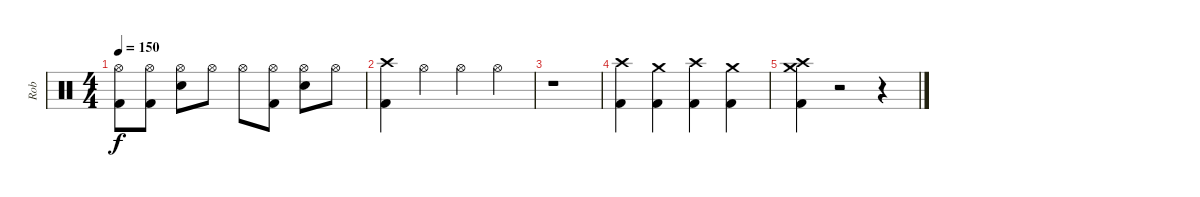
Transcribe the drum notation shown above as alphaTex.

\track ("Rob" "Rob") {instrument percussion}
\staff {score}
\articulation defaults
\ts (4 4)
\tempo 150
\clef neutral
\ks c
("Hi-Hat (open)" "Kick (hit) 2").8{dy f} ("Hi-Hat (open)" "Kick (hit) 2").8 ("Hi-Hat (open)" "Electric Snare (hit)").8 "Hi-Hat (open)".8 "Hi-Hat (open)".8 ("Hi-Hat (open)" "Kick (hit) 2").8 ("Hi-Hat (open)" "Electric Snare (hit)").8 "Hi-Hat (open)".8 |
("Crash high (hit)" "Kick (hit) 2").4 "Hi-Hat (open)".4 "Hi-Hat (open)".4 "Hi-Hat (open)".4 |
r.1 |
("Crash high (hit)" "Kick (hit) 2").4 ("Crash medium (hit)" "Kick (hit) 2").4 ("Crash high (hit)" "Kick (hit) 2").4 ("Crash medium (hit)" "Kick (hit) 2").4 |
("Crash high (hit)" "Kick (hit) 2" "Crash medium (hit)").4 r.2 r.4
